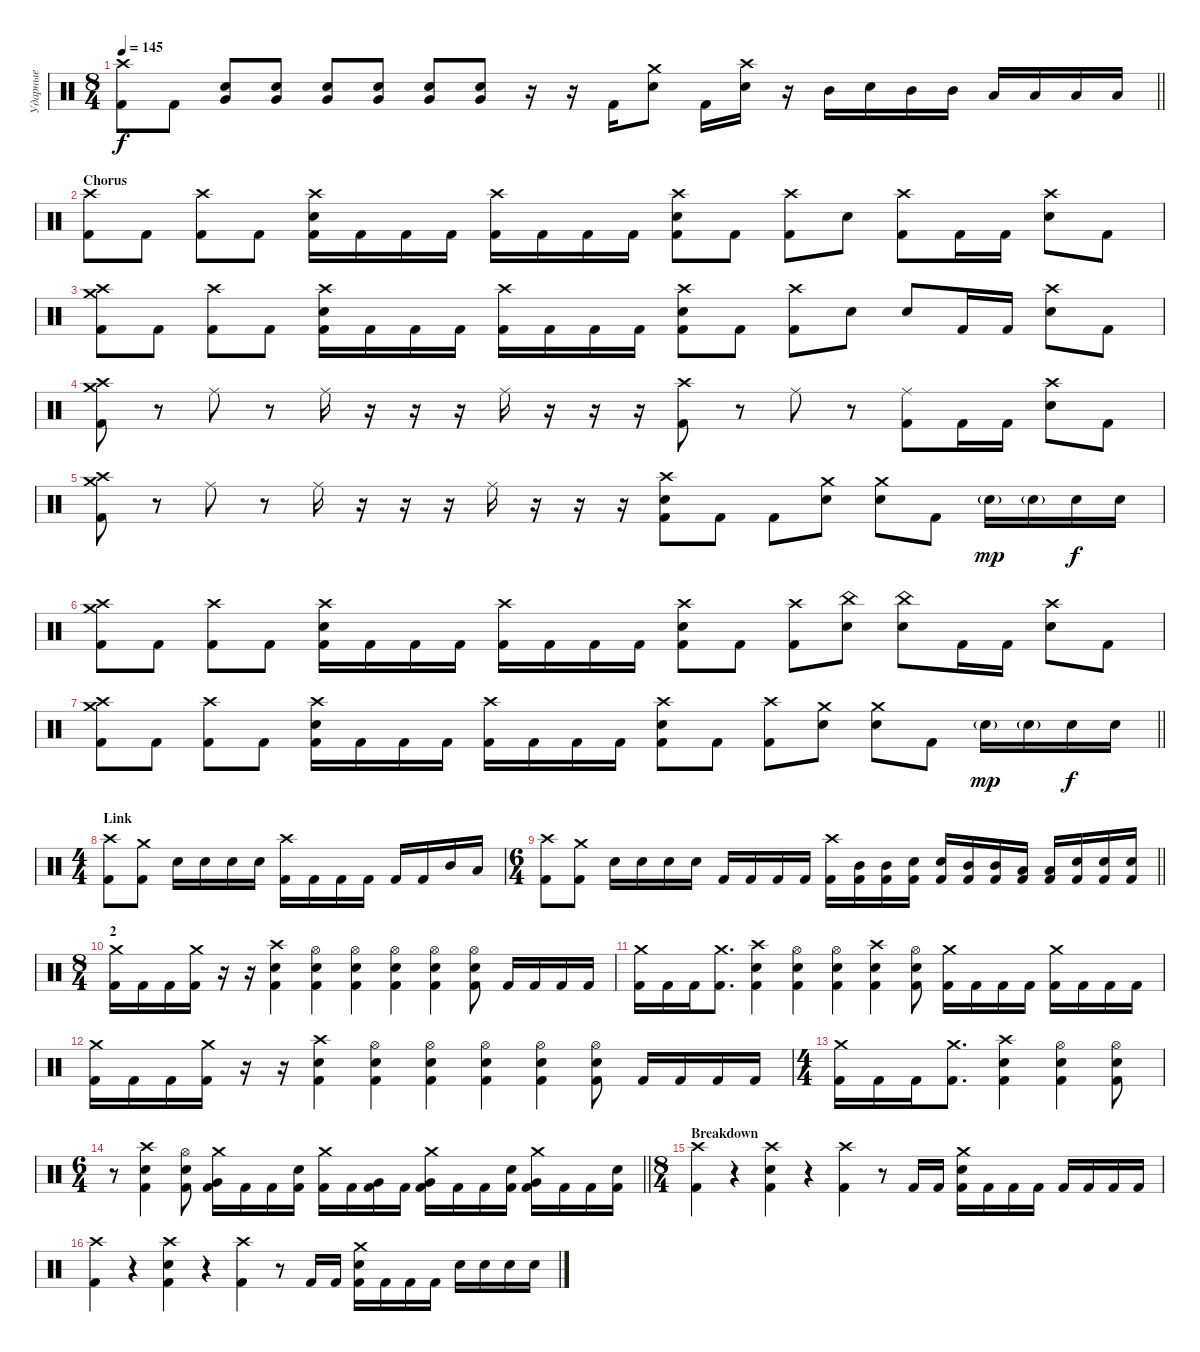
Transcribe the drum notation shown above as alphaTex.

\track ("Ударные" "Ударные") {instrument percussion}
\staff {score}
\articulation defaults
\ts (8 4)
\tempo 145
\clef neutral
\barLineRight lightlight
\ks c
("Crash high (hit)" "Kick (hit) 2").8{dy f} "Kick (hit) 2".8 ("Very Low Tom (hit)" "Electric Snare (hit)").8 ("Very Low Tom (hit)" "Electric Snare (hit)").8 ("Very Low Tom (hit)" "Electric Snare (hit)").8 ("Very Low Tom (hit)" "Electric Snare (hit)").8 ("Very Low Tom (hit)" "Electric Snare (hit)").8 ("Very Low Tom (hit)" "Electric Snare (hit)").8 r.16 r.16 "Kick (hit) 2".16 ("Crash medium (hit)" "Electric Snare (hit)").8 "Kick (hit) 2".16 ("Crash high (hit)" "Electric Snare (hit)").16 r.16 "Mid Tom (hit)".16 "Electric Snare (hit)".16 "Mid Tom (hit)".16 "Mid Tom (hit)".16 "Low Tom (hit)".16 "Low Tom (hit)".16 "Low Tom (hit)".16 "Low Tom (hit)".16 |
\section ("" "Chorus")
("Crash high (hit)" "Kick (hit) 2").8 "Kick (hit) 2".8 ("Crash high (hit)" "Kick (hit) 2").8 "Kick (hit) 2".8 ("Crash high (hit)" "Electric Snare (hit)" "Kick (hit) 2").16 "Kick (hit) 2".16 "Kick (hit) 2".16 "Kick (hit) 2".16 ("Crash high (hit)" "Kick (hit) 2").16 "Kick (hit) 2".16 "Kick (hit) 2".16 "Kick (hit) 2".16 ("Crash high (hit)" "Electric Snare (hit)" "Kick (hit) 2").8 "Kick (hit) 2".8 ("Crash high (hit)" "Kick (hit) 2").8 "Electric Snare (hit)".8 ("Crash high (hit)" "Kick (hit) 2").8 "Kick (hit) 2".16 "Kick (hit) 2".16 ("Crash high (hit)" "Electric Snare (hit)").8 "Kick (hit) 2".8 |
("Crash high (hit)" "Crash medium (hit)" "Kick (hit) 2").8 "Kick (hit) 2".8 ("Crash high (hit)" "Kick (hit) 2").8 "Kick (hit) 2".8 ("Crash high (hit)" "Electric Snare (hit)" "Kick (hit) 2").16 "Kick (hit) 2".16 "Kick (hit) 2".16 "Kick (hit) 2".16 ("Crash high (hit)" "Kick (hit) 2").16 "Kick (hit) 2".16 "Kick (hit) 2".16 "Kick (hit) 2".16 ("Crash high (hit)" "Electric Snare (hit)" "Kick (hit) 2").8 "Kick (hit) 2".8 ("Crash high (hit)" "Kick (hit) 2").8 "Electric Snare (hit)".8 "Electric Snare (hit)".8 "Kick (hit) 2".16 "Kick (hit) 2".16 ("Crash high (hit)" "Electric Snare (hit)").8 "Kick (hit) 2".8 |
("Crash high (hit)" "Crash medium (hit)" "Kick (hit) 2").8 r.8 "Ride (middle)".8 r.8 "Ride (middle)".16 r.16 r.16 r.16 "Ride (middle)".16 r.16 r.16 r.16 ("Crash high (hit)" "Kick (hit) 2").8 r.8 "Ride (middle)".8 r.8 ("Ride (middle)" "Kick (hit) 2").8 "Kick (hit) 2".16 "Kick (hit) 2".16 ("Crash high (hit)" "Electric Snare (hit)").8 "Kick (hit) 2".8 |
("Crash high (hit)" "Crash medium (hit)" "Kick (hit) 2").8 r.8 "Ride (middle)".8 r.8 "Ride (middle)".16 r.16 r.16 r.16 "Ride (middle)".16 r.16 r.16 r.16 ("Crash high (hit)" "Electric Snare (hit)" "Kick (hit) 2").8 "Kick (hit) 2".8 "Kick (hit) 2".8 ("Crash medium (hit)" "Electric Snare (hit)").8 ("Crash medium (hit)" "Electric Snare (hit)").8 "Kick (hit) 2".8 "Electric Snare (hit)"{g}.16{dy mp} "Electric Snare (hit)"{g}.16 "Electric Snare (hit)".16{dy f} "Electric Snare (hit)".16 |
("Crash high (hit)" "Crash medium (hit)" "Kick (hit) 2").8 "Kick (hit) 2".8 ("Crash high (hit)" "Kick (hit) 2").8 "Kick (hit) 2".8 ("Crash high (hit)" "Electric Snare (hit)" "Kick (hit) 2").16 "Kick (hit) 2".16 "Kick (hit) 2".16 "Kick (hit) 2".16 ("Crash high (hit)" "Kick (hit) 2").16 "Kick (hit) 2".16 "Kick (hit) 2".16 "Kick (hit) 2".16 ("Crash high (hit)" "Electric Snare (hit)" "Kick (hit) 2").8 "Kick (hit) 2".8 ("Crash high (hit)" "Kick (hit) 2").8 ("China (hit)" "Electric Snare (hit)").8 ("China (hit)" "Electric Snare (hit)").8 "Kick (hit) 2".16 "Kick (hit) 2".16 ("Crash high (hit)" "Electric Snare (hit)").8 "Kick (hit) 2".8 |
\barLineRight lightlight
("Crash high (hit)" "Crash medium (hit)" "Kick (hit) 2").8 "Kick (hit) 2".8 ("Crash high (hit)" "Kick (hit) 2").8 "Kick (hit) 2".8 ("Crash high (hit)" "Electric Snare (hit)" "Kick (hit) 2").16 "Kick (hit) 2".16 "Kick (hit) 2".16 "Kick (hit) 2".16 ("Crash high (hit)" "Kick (hit) 2").16 "Kick (hit) 2".16 "Kick (hit) 2".16 "Kick (hit) 2".16 ("Crash high (hit)" "Electric Snare (hit)" "Kick (hit) 2").8 "Kick (hit) 2".8 ("Crash high (hit)" "Kick (hit) 2").8 ("Crash medium (hit)" "Electric Snare (hit)").8 ("Crash medium (hit)" "Electric Snare (hit)").8 "Kick (hit) 2".8 "Electric Snare (hit)"{g}.16{dy mp} "Electric Snare (hit)"{g}.16 "Electric Snare (hit)".16{dy f} "Electric Snare (hit)".16 |
\ts (4 4)
\section ("" "Link")
("Crash high (hit)" "Kick (hit) 2").8 ("Crash medium (hit)" "Kick (hit) 2").8 "Electric Snare (hit)".16 "Electric Snare (hit)".16 "Electric Snare (hit)".16 "Electric Snare (hit)".16 ("Crash high (hit)" "Kick (hit) 2").16 "Kick (hit) 2".16 "Kick (hit) 2".16 "Kick (hit) 2".16 "Kick (hit) 2".16 "Kick (hit) 2".16 "Mid Tom (hit)".16 "Low Tom (hit)".16 |
\ts (6 4)
\barLineRight lightlight
("Crash high (hit)" "Kick (hit) 2").8 ("Crash medium (hit)" "Kick (hit) 2").8 "Electric Snare (hit)".16 "Electric Snare (hit)".16 "Electric Snare (hit)".16 "Electric Snare (hit)".16 "Kick (hit) 2".16 "Kick (hit) 2".16 "Kick (hit) 2".16 "Kick (hit) 2".16 ("Crash high (hit)" "Kick (hit) 2").16 ("Mid Tom (hit)" "Kick (hit) 2").16 ("Mid Tom (hit)" "Kick (hit) 2").16 ("Electric Snare (hit)" "Kick (hit) 2").16 ("Electric Snare (hit)" "Kick (hit) 2").16 ("Mid Tom (hit)" "Kick (hit) 2").16 ("Mid Tom (hit)" "Kick (hit) 2").16 ("Low Tom (hit)" "Kick (hit) 2").16 ("Low Tom (hit)" "Kick (hit) 2").16 ("Electric Snare (hit)" "Kick (hit) 2").16 ("Electric Snare (hit)" "Kick (hit) 2").16 ("Electric Snare (hit)" "Kick (hit) 2").16 |
\ts (8 4)
\section ("" "2")
("Crash medium (hit)" "Kick (hit) 2").16 "Kick (hit) 2".16 "Kick (hit) 2".16 ("Crash medium (hit)" "Kick (hit) 2").16 r.16 r.16 ("Crash high (hit)" "Electric Snare (hit)" "Kick (hit) 2").4 ("Hi-Hat (open)" "Electric Snare (hit)" "Kick (hit) 2").4 ("Hi-Hat (open)" "Electric Snare (hit)" "Kick (hit) 2").4 ("Hi-Hat (open)" "Electric Snare (hit)" "Kick (hit) 2").4 ("Hi-Hat (open)" "Electric Snare (hit)" "Kick (hit) 2").4 ("Hi-Hat (open)" "Electric Snare (hit)" "Kick (hit) 2").8 "Kick (hit) 2".16 "Kick (hit) 2".16 "Kick (hit) 2".16 "Kick (hit) 2".16 |
("Crash medium (hit)" "Kick (hit) 2").16 "Kick (hit) 2".16 "Kick (hit) 2".16 ("Crash medium (hit)" "Kick (hit) 2").8{d} ("Crash high (hit)" "Electric Snare (hit)" "Kick (hit) 2").4 ("Hi-Hat (open)" "Electric Snare (hit)" "Kick (hit) 2").4 ("Hi-Hat (open)" "Electric Snare (hit)" "Kick (hit) 2").4 ("Crash high (hit)" "Electric Snare (hit)" "Kick (hit) 2").4 ("Hi-Hat (open)" "Electric Snare (hit)" "Kick (hit) 2").8 ("Crash medium (hit)" "Kick (hit) 2").16 "Kick (hit) 2".16 "Kick (hit) 2".16 "Kick (hit) 2".16 ("Crash medium (hit)" "Kick (hit) 2").16 "Kick (hit) 2".16 "Kick (hit) 2".16 "Kick (hit) 2".16 |
("Crash medium (hit)" "Kick (hit) 2").16 "Kick (hit) 2".16 "Kick (hit) 2".16 ("Crash medium (hit)" "Kick (hit) 2").16 r.16 r.16 ("Crash high (hit)" "Electric Snare (hit)" "Kick (hit) 2").4 ("Hi-Hat (open)" "Electric Snare (hit)" "Kick (hit) 2").4 ("Hi-Hat (open)" "Electric Snare (hit)" "Kick (hit) 2").4 ("Hi-Hat (open)" "Electric Snare (hit)" "Kick (hit) 2").4 ("Hi-Hat (open)" "Electric Snare (hit)" "Kick (hit) 2").4 ("Hi-Hat (open)" "Electric Snare (hit)" "Kick (hit) 2").8 "Kick (hit) 2".16 "Kick (hit) 2".16 "Kick (hit) 2".16 "Kick (hit) 2".16 |
\ts (4 4)
("Crash medium (hit)" "Kick (hit) 2").16 "Kick (hit) 2".16 "Kick (hit) 2".16 ("Crash medium (hit)" "Kick (hit) 2").8{d} ("Crash high (hit)" "Electric Snare (hit)" "Kick (hit) 2").4 ("Hi-Hat (open)" "Electric Snare (hit)" "Kick (hit) 2").4 ("Hi-Hat (open)" "Electric Snare (hit)" "Kick (hit) 2").8 |
\ts (6 4)
\barLineRight lightlight
r.8 ("Crash high (hit)" "Electric Snare (hit)" "Kick (hit) 2").4 ("Hi-Hat (open)" "Electric Snare (hit)" "Kick (hit) 2").8 ("Crash medium (hit)" "Very Low Tom (hit)" "Kick (hit) 2").16 "Kick (hit) 2".16 "Kick (hit) 2".16 ("Electric Snare (hit)" "Kick (hit) 2").16 ("Crash medium (hit)" "Kick (hit) 2").16 "Kick (hit) 2".16 ("Very Low Tom (hit)" "Kick (hit) 2").16 "Kick (hit) 2".16 ("Crash medium (hit)" "Very Low Tom (hit)" "Kick (hit) 2").16 "Kick (hit) 2".16 "Kick (hit) 2".16 ("Electric Snare (hit)" "Kick (hit) 2").16 ("Crash medium (hit)" "Very Low Tom (hit)" "Kick (hit) 2").16 "Kick (hit) 2".16 "Kick (hit) 2".16 ("Electric Snare (hit)" "Kick (hit) 2").16 |
\ts (8 4)
\section ("" "Breakdown")
("Crash high (hit)" "Kick (hit) 2").4 r.4{volume 0} ("Crash high (hit)" "Electric Snare (hit)" "Kick (hit) 2").4{volume 16} r.4{volume 0} ("Crash high (hit)" "Kick (hit) 2").4{volume 16} r.8{volume 0} "Kick (hit) 2".16{volume 16} "Kick (hit) 2".16 ("Crash medium (hit)" "Electric Snare (hit)" "Kick (hit) 2").16 "Kick (hit) 2".16 "Kick (hit) 2".16 "Kick (hit) 2".16 "Kick (hit) 2".16 "Kick (hit) 2".16 "Kick (hit) 2".16 "Kick (hit) 2".16 |
("Crash high (hit)" "Kick (hit) 2").4 r.4{volume 0} ("Crash high (hit)" "Electric Snare (hit)" "Kick (hit) 2").4{volume 16} r.4{volume 0} ("Crash high (hit)" "Kick (hit) 2").4{volume 16} r.8{volume 0} "Kick (hit) 2".16{volume 16} "Kick (hit) 2".16 ("Crash medium (hit)" "Electric Snare (hit)" "Kick (hit) 2").16 "Kick (hit) 2".16 "Kick (hit) 2".16 "Kick (hit) 2".16 "Electric Snare (hit)".16 "Electric Snare (hit)".16 "Electric Snare (hit)".16 "Electric Snare (hit)".16
